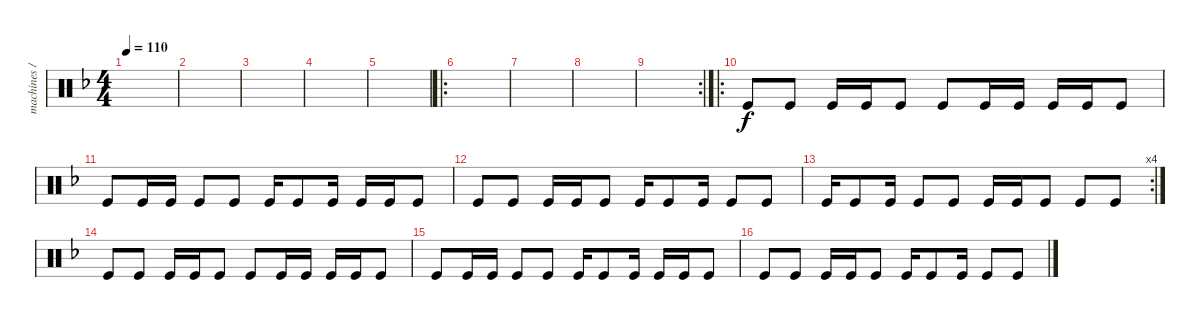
\track ("machines / drum" "machines /") {instrument percussion}
\staff {score}
\articulation defaults
\ts (4 4)
\tempo 110
\clef neutral
\ks f
|
|
|
|
|
\ro
|
|
|
\rc 2
|
\ro "Kick (hit)".8 "Kick (hit)".8 "Kick (hit)".16 "Kick (hit)".16 "Kick (hit)".8 "Kick (hit)".8 "Kick (hit)".16 "Kick (hit)".16 "Kick (hit)".16 "Kick (hit)".16 "Kick (hit)".8
|
"Kick (hit)".8 "Kick (hit)".16 "Kick (hit)".16 "Kick (hit)".8 "Kick (hit)".8 "Kick (hit)".16 "Kick (hit)".8 "Kick (hit)".16 "Kick (hit)".16 "Kick (hit)".16 "Kick (hit)".8 |
"Kick (hit)".8 "Kick (hit)".8 "Kick (hit)".16 "Kick (hit)".16 "Kick (hit)".8 "Kick (hit)".16 "Kick (hit)".8 "Kick (hit)".16 "Kick (hit)".8 "Kick (hit)".8 |
\rc 4 "Kick (hit)".16 "Kick (hit)".8 "Kick (hit)".16 "Kick (hit)".8 "Kick (hit)".8 "Kick (hit)".16 "Kick (hit)".16 "Kick (hit)".8 "Kick (hit)".8 "Kick (hit)".8
|
"Kick (hit)".8 "Kick (hit)".8 "Kick (hit)".16 "Kick (hit)".16 "Kick (hit)".8 "Kick (hit)".8 "Kick (hit)".16 "Kick (hit)".16 "Kick (hit)".16 "Kick (hit)".16 "Kick (hit)".8 |
"Kick (hit)".8 "Kick (hit)".16 "Kick (hit)".16 "Kick (hit)".8 "Kick (hit)".8 "Kick (hit)".16 "Kick (hit)".8 "Kick (hit)".16 "Kick (hit)".16 "Kick (hit)".16 "Kick (hit)".8 |
"Kick (hit)".8 "Kick (hit)".8 "Kick (hit)".16 "Kick (hit)".16 "Kick (hit)".8 "Kick (hit)".16 "Kick (hit)".8 "Kick (hit)".16 "Kick (hit)".8 "Kick (hit)".8
